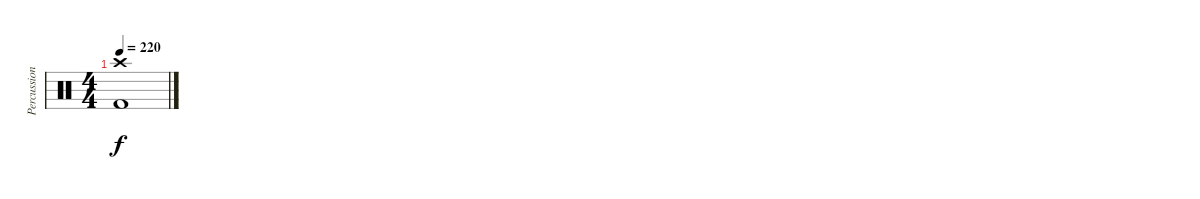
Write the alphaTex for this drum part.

\track ("Percussion" "Percussion") {instrument percussion}
\staff {score}
\articulation defaults
\ts (4 4)
\tempo 220
\clef neutral
\ks c
("Crash high (hit)" "Kick (hit) 2").1{dy f}
